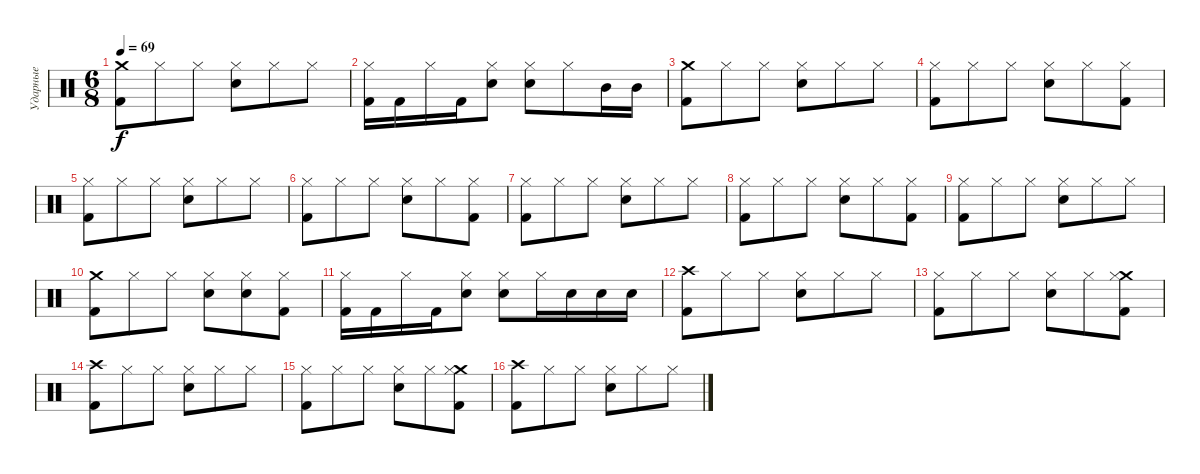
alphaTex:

\track ("Ударные" "Ударные") {instrument percussion}
\staff {score}
\articulation defaults
\ts (6 8)
\tempo 69
\clef neutral
\ks c
("Crash medium (hit)" "Kick (hit) 2").8{dy f} "Hi-Hat (closed)".8 "Hi-Hat (closed)".8 ("Hi-Hat (closed)" "Snare (hit) 2").8 "Hi-Hat (closed)".8 "Hi-Hat (closed)".8 |
("Hi-Hat (closed)" "Kick (hit) 2").16 "Kick (hit) 2".16 "Hi-Hat (closed)".16 "Kick (hit) 2".16 ("Hi-Hat (closed)" "Snare (hit) 2").8 ("Hi-Hat (closed)" "Snare (hit) 2").8 "Hi-Hat (closed)".8 "Mid Tom (hit)".16 "Mid Tom (hit)".16 |
("Crash medium (hit)" "Kick (hit) 2").8 "Hi-Hat (closed)".8 "Hi-Hat (closed)".8 ("Hi-Hat (closed)" "Snare (hit) 2").8 "Hi-Hat (closed)".8 "Hi-Hat (closed)".8 |
("Hi-Hat (closed)" "Kick (hit) 2").8 "Hi-Hat (closed)".8 "Hi-Hat (closed)".8 ("Hi-Hat (closed)" "Snare (hit) 2").8 "Hi-Hat (closed)".8 ("Hi-Hat (closed)" "Kick (hit) 2").8 |
("Hi-Hat (closed)" "Kick (hit) 2").8 "Hi-Hat (closed)".8 "Hi-Hat (closed)".8 ("Hi-Hat (closed)" "Snare (hit) 2").8 "Hi-Hat (closed)".8 "Hi-Hat (closed)".8 |
("Hi-Hat (closed)" "Kick (hit) 2").8 "Hi-Hat (closed)".8 "Hi-Hat (closed)".8 ("Hi-Hat (closed)" "Snare (hit) 2").8 "Hi-Hat (closed)".8 ("Hi-Hat (closed)" "Kick (hit) 2").8 |
("Hi-Hat (closed)" "Kick (hit) 2").8 "Hi-Hat (closed)".8 "Hi-Hat (closed)".8 ("Hi-Hat (closed)" "Snare (hit) 2").8 "Hi-Hat (closed)".8 "Hi-Hat (closed)".8 |
("Hi-Hat (closed)" "Kick (hit) 2").8 "Hi-Hat (closed)".8 "Hi-Hat (closed)".8 ("Hi-Hat (closed)" "Snare (hit) 2").8 "Hi-Hat (closed)".8 ("Hi-Hat (closed)" "Kick (hit) 2").8 |
("Hi-Hat (closed)" "Kick (hit) 2").8 "Hi-Hat (closed)".8 "Hi-Hat (closed)".8 ("Hi-Hat (closed)" "Snare (hit) 2").8 "Hi-Hat (closed)".8 "Hi-Hat (closed)".8 |
("Crash medium (hit)" "Kick (hit) 2").8 "Hi-Hat (closed)".8 "Hi-Hat (closed)".8 ("Hi-Hat (closed)" "Snare (hit) 2").8 ("Hi-Hat (closed)" "Snare (hit) 2").8 ("Hi-Hat (closed)" "Kick (hit) 2").8 |
("Hi-Hat (closed)" "Kick (hit) 2").16 "Kick (hit) 2".16 "Hi-Hat (closed)".16 "Kick (hit) 2".16 ("Hi-Hat (closed)" "Snare (hit) 2").8 ("Hi-Hat (closed)" "Snare (hit) 2").8 "Hi-Hat (closed)".16 "Snare (hit) 2".16 "Snare (hit) 2".16 "Snare (hit) 2".16 |
("Crash high (hit)" "Kick (hit) 2").8 "Hi-Hat (closed)".8 "Hi-Hat (closed)".8 ("Hi-Hat (closed)" "Snare (hit) 2").8 "Hi-Hat (closed)".8 "Hi-Hat (closed)".8 |
("Hi-Hat (closed)" "Kick (hit) 2").8 "Hi-Hat (closed)".8 "Hi-Hat (closed)".8 ("Hi-Hat (closed)" "Snare (hit) 2").8 "Hi-Hat (closed)".8 ("Crash medium (hit)" "Hi-Hat (closed)" "Kick (hit) 2").8 |
("Crash high (hit)" "Kick (hit) 2").8 "Hi-Hat (closed)".8 "Hi-Hat (closed)".8 ("Hi-Hat (closed)" "Snare (hit) 2").8 "Hi-Hat (closed)".8 "Hi-Hat (closed)".8 |
("Hi-Hat (closed)" "Kick (hit) 2").8 "Hi-Hat (closed)".8 "Hi-Hat (closed)".8 ("Hi-Hat (closed)" "Snare (hit) 2").8 "Hi-Hat (closed)".8 ("Crash medium (hit)" "Hi-Hat (closed)" "Kick (hit) 2").8 |
("Crash high (hit)" "Kick (hit) 2").8 "Hi-Hat (closed)".8 "Hi-Hat (closed)".8 ("Hi-Hat (closed)" "Snare (hit) 2").8 "Hi-Hat (closed)".8 "Hi-Hat (closed)".8
